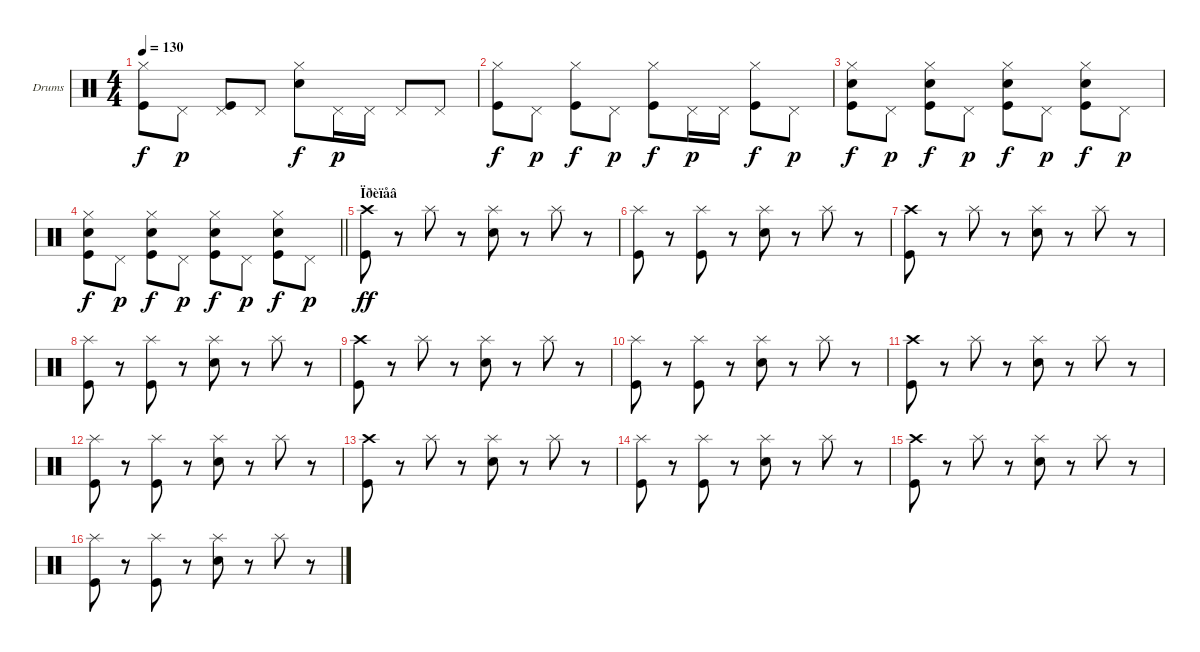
\bracketExtendMode groupsimilarinstruments
\firstSystemTrackNameOrientation horizontal
\otherSystemsTrackNameOrientation horizontal
\track ("Drumkit" "Drums") {instrument percussion}
\staff {score}
\articulation defaults
\ts (4 4)
\tempo 130
\clef neutral
\ks c
("Hi-Hat (closed)" "Kick (hit)").8{dy f} "Pedal Hi-Hat (hit)".8{dy p} ("Pedal Hi-Hat (hit)" "Kick (hit)").8 "Pedal Hi-Hat (hit)".8 ("Snare (hit) 2" "Hi-Hat (closed)").8{dy f} "Pedal Hi-Hat (hit)".16{dy p} "Pedal Hi-Hat (hit)".16 "Pedal Hi-Hat (hit)".8 "Pedal Hi-Hat (hit)".8 |
("Hi-Hat (closed)" "Kick (hit)").8{dy f} "Pedal Hi-Hat (hit)".8{dy p} ("Hi-Hat (closed)" "Kick (hit)").8{dy f} "Pedal Hi-Hat (hit)".8{dy p} ("Hi-Hat (closed)" "Kick (hit)").8{dy f} "Pedal Hi-Hat (hit)".16{dy p} "Pedal Hi-Hat (hit)".16 ("Hi-Hat (closed)" "Kick (hit)").8{dy f} "Pedal Hi-Hat (hit)".8{dy p} |
("Snare (hit) 2" "Hi-Hat (closed)" "Kick (hit)").8{dy f} "Pedal Hi-Hat (hit)".8{dy p} ("Snare (hit) 2" "Hi-Hat (closed)" "Kick (hit)").8{dy f} "Pedal Hi-Hat (hit)".8{dy p} ("Snare (hit) 2" "Hi-Hat (closed)" "Kick (hit)").8{dy f} "Pedal Hi-Hat (hit)".8{dy p} ("Snare (hit) 2" "Hi-Hat (closed)" "Kick (hit)").8{dy f} "Pedal Hi-Hat (hit)".8{dy p} |
\barLineRight lightlight
("Snare (hit) 2" "Hi-Hat (closed)" "Kick (hit)").8{dy f} "Pedal Hi-Hat (hit)".8{dy p} ("Snare (hit) 2" "Hi-Hat (closed)" "Kick (hit)").8{dy f} "Pedal Hi-Hat (hit)".8{dy p} ("Snare (hit) 2" "Hi-Hat (closed)" "Kick (hit)").8{dy f} "Pedal Hi-Hat (hit)".8{dy p} ("Snare (hit) 2" "Hi-Hat (closed)" "Kick (hit)").8{dy f} "Pedal Hi-Hat (hit)".8{dy p} |
\section ("" "Ïðèïåâ")
("Kick (hit)" "Crash high (hit)").8{dy ff} r.8 "Splash (hit)".8 r.8 ("Snare (hit) 2" "Splash (hit)").8 r.8 "Splash (hit)".8 r.8 |
("Kick (hit)" "Splash (hit)").8 r.8 ("Kick (hit)" "Splash (hit)").8 r.8 ("Snare (hit) 2" "Splash (hit)").8 r.8 "Splash (hit)".8 r.8 |
("Kick (hit)" "Crash high (hit)").8 r.8 "Splash (hit)".8 r.8 ("Snare (hit) 2" "Splash (hit)").8 r.8 "Splash (hit)".8 r.8 |
("Kick (hit)" "Splash (hit)").8 r.8 ("Kick (hit)" "Splash (hit)").8 r.8 ("Snare (hit) 2" "Splash (hit)").8 r.8 "Splash (hit)".8 r.8 |
("Kick (hit)" "Crash high (hit)").8 r.8 "Splash (hit)".8 r.8 ("Snare (hit) 2" "Splash (hit)").8 r.8 "Splash (hit)".8 r.8 |
("Kick (hit)" "Splash (hit)").8 r.8 ("Kick (hit)" "Splash (hit)").8 r.8 ("Snare (hit) 2" "Splash (hit)").8 r.8 "Splash (hit)".8 r.8 |
("Kick (hit)" "Crash high (hit)").8 r.8 "Splash (hit)".8 r.8 ("Snare (hit) 2" "Splash (hit)").8 r.8 "Splash (hit)".8 r.8 |
("Kick (hit)" "Splash (hit)").8 r.8 ("Kick (hit)" "Splash (hit)").8 r.8 ("Snare (hit) 2" "Splash (hit)").8 r.8 "Splash (hit)".8 r.8 |
("Kick (hit)" "Crash high (hit)").8 r.8 "Splash (hit)".8 r.8 ("Snare (hit) 2" "Splash (hit)").8 r.8 "Splash (hit)".8 r.8 |
("Kick (hit)" "Splash (hit)").8 r.8 ("Kick (hit)" "Splash (hit)").8 r.8 ("Snare (hit) 2" "Splash (hit)").8 r.8 "Splash (hit)".8 r.8 |
("Kick (hit)" "Crash high (hit)").8 r.8 "Splash (hit)".8 r.8 ("Snare (hit) 2" "Splash (hit)").8 r.8 "Splash (hit)".8 r.8 |
("Kick (hit)" "Splash (hit)").8 r.8 ("Kick (hit)" "Splash (hit)").8 r.8 ("Snare (hit) 2" "Splash (hit)").8 r.8 "Splash (hit)".8 r.8
